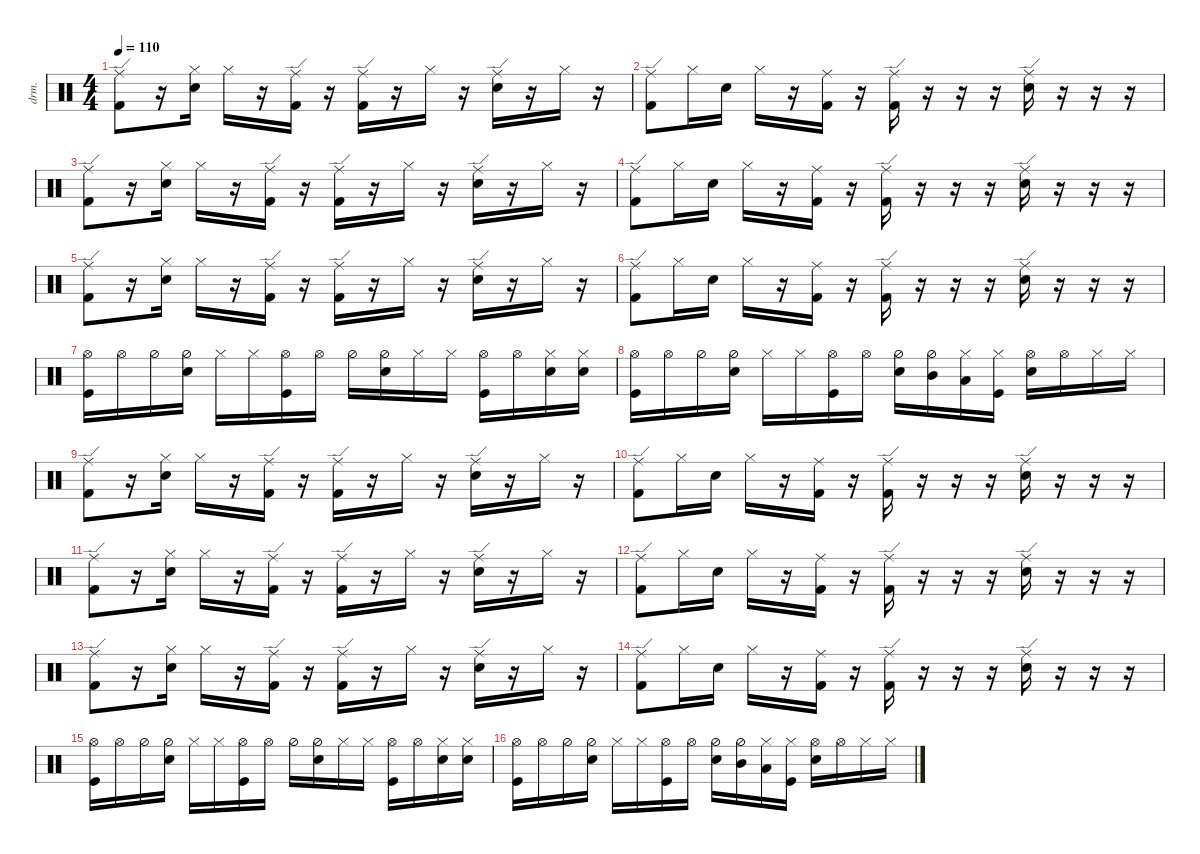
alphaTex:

\defaultSystemsLayout 4
\hideDynamics
\bracketExtendMode nobrackets
\otherSystemsTrackNameOrientation horizontal
\track ("Drumkit" "drm.") {instrument percussion}
\staff {score}
\articulation defaults
\ts (4 4)
\tempo 110
\clef neutral
\ks c
("Kick (hit) 2" "Ride (edge)").8{dy mf beam Down} r.16{beam Down} ("Snare (hit) 2" "Hi-Hat (closed)").16{beam Down} "Hi-Hat (closed)".16{beam Down} r.16{beam Down} ("Kick (hit) 2" "Ride (edge)").16{beam Down} r.16{beam Down} ("Kick (hit) 2" "Ride (edge)").16{beam Down} r.16{beam Down} "Hi-Hat (closed)".16{beam Down} r.16{beam Down} ("Snare (hit) 2" "Ride (edge)").16{beam Down} r.16{beam Down} "Hi-Hat (closed)".16{beam Down} r.16{beam Down} |
("Kick (hit) 2" "Ride (edge)").8{beam Down} "Hi-Hat (closed)".16{beam Down} "Snare (hit) 2".16{beam Down} "Hi-Hat (closed)".16{beam Down} r.16{beam Down} ("Kick (hit) 2" "Ride (middle)").16{beam Down} r.16{beam Down} ("Kick (hit) 2" "Ride (edge)").16{beam Down} r.16{beam Down} r.16{beam Down} r.16{beam Down} ("Snare (hit) 2" "Ride (edge)").16{beam Down} r.16{beam Down} r.16{beam Down} r.16{beam Down} |
("Kick (hit) 2" "Ride (edge)").8{beam Down} r.16{beam Down} ("Snare (hit) 2" "Hi-Hat (closed)").16{beam Down} "Hi-Hat (closed)".16{beam Down} r.16{beam Down} ("Kick (hit) 2" "Ride (edge)").16{beam Down} r.16{beam Down} ("Kick (hit) 2" "Ride (edge)").16{beam Down} r.16{beam Down} "Hi-Hat (closed)".16{beam Down} r.16{beam Down} ("Snare (hit) 2" "Ride (edge)").16{beam Down} r.16{beam Down} "Hi-Hat (closed)".16{beam Down} r.16{beam Down} |
("Kick (hit) 2" "Ride (edge)").8{beam Down} "Hi-Hat (closed)".16{beam Down} "Snare (hit) 2".16{beam Down} "Hi-Hat (closed)".16{beam Down} r.16{beam Down} ("Kick (hit) 2" "Ride (middle)").16{beam Down} r.16{beam Down} ("Kick (hit) 2" "Ride (edge)").16{beam Down} r.16{beam Down} r.16{beam Down} r.16{beam Down} ("Snare (hit) 2" "Ride (edge)").16{beam Down} r.16{beam Down} r.16{beam Down} r.16{beam Down} |
("Kick (hit) 2" "Ride (edge)").8{beam Down} r.16{beam Down} ("Snare (hit) 2" "Hi-Hat (closed)").16{beam Down} "Hi-Hat (closed)".16{beam Down} r.16{beam Down} ("Kick (hit) 2" "Ride (edge)").16{beam Down} r.16{beam Down} ("Kick (hit) 2" "Ride (edge)").16{beam Down} r.16{beam Down} "Hi-Hat (closed)".16{beam Down} r.16{beam Down} ("Snare (hit) 2" "Ride (edge)").16{beam Down} r.16{beam Down} "Hi-Hat (closed)".16{beam Down} r.16{beam Down} |
("Kick (hit) 2" "Ride (edge)").8{beam Down} "Hi-Hat (closed)".16{beam Down} "Snare (hit) 2".16{beam Down} "Hi-Hat (closed)".16{beam Down} r.16{beam Down} ("Kick (hit) 2" "Ride (middle)").16{beam Down} r.16{beam Down} ("Kick (hit) 2" "Ride (edge)").16{beam Down} r.16{beam Down} r.16{beam Down} r.16{beam Down} ("Snare (hit) 2" "Ride (edge)").16{beam Down} r.16{beam Down} r.16{beam Down} r.16{beam Down} |
("Hi-Hat (open)" "Kick (hit)").16{beam Down} "Hi-Hat (open)".16{beam Down} "Hi-Hat (half)".16{beam Down} ("Hi-Hat (half)" "Snare (hit) 2").16{beam Down} "Hi-Hat (closed)".16{beam Down} "Hi-Hat (closed)".16{beam Down} ("Hi-Hat (open)" "Kick (hit)").16{beam Down} "Hi-Hat (open)".16{beam Down} "Hi-Hat (half)".16{beam Down} ("Snare (hit) 2" "Hi-Hat (half)").16{beam Down} "Hi-Hat (closed)".16{beam Down} "Hi-Hat (closed)".16{beam Down} ("Hi-Hat (open)" "Kick (hit)").16{beam Down} "Hi-Hat (open)".16{beam Down} ("Snare (hit) 2" "Hi-Hat (closed)").16{beam Down} ("Hi-Hat (closed)" "Snare (hit) 2").16{beam Down} |
("Hi-Hat (open)" "Kick (hit)").16{beam Down} "Hi-Hat (open)".16{beam Down} "Hi-Hat (half)".16{beam Down} ("Hi-Hat (half)" "Snare (hit) 2").16{beam Down} "Hi-Hat (closed)".16{beam Down} "Hi-Hat (closed)".16{beam Down} ("Hi-Hat (open)" "Kick (hit)").16{beam Down} "Hi-Hat (open)".16{beam Down} ("Hi-Hat (half)" "Snare (hit) 2").16{beam Down} ("Hi-Hat (half)" "Mid Tom (hit)").16{beam Down} ("Hi-Hat (closed)" "Low Tom (hit)").16{beam Down} ("Hi-Hat (closed)" "Kick (hit)").16{beam Down} ("Hi-Hat (open)" "Snare (hit) 2").16{beam Down} "Hi-Hat (open)".16{beam Down} "Hi-Hat (closed)".16{beam Down} "Hi-Hat (closed)".16{beam Down} |
("Kick (hit) 2" "Ride (edge)").8{beam Down} r.16{beam Down} ("Snare (hit) 2" "Hi-Hat (closed)").16{beam Down} "Hi-Hat (closed)".16{beam Down} r.16{beam Down} ("Kick (hit) 2" "Ride (edge)").16{beam Down} r.16{beam Down} ("Kick (hit) 2" "Ride (edge)").16{beam Down} r.16{beam Down} "Hi-Hat (closed)".16{beam Down} r.16{beam Down} ("Snare (hit) 2" "Ride (edge)").16{beam Down} r.16{beam Down} "Hi-Hat (closed)".16{beam Down} r.16{beam Down} |
("Kick (hit) 2" "Ride (edge)").8{beam Down} "Hi-Hat (closed)".16{beam Down} "Snare (hit) 2".16{beam Down} "Hi-Hat (closed)".16{beam Down} r.16{beam Down} ("Kick (hit) 2" "Ride (middle)").16{beam Down} r.16{beam Down} ("Kick (hit) 2" "Ride (edge)").16{beam Down} r.16{beam Down} r.16{beam Down} r.16{beam Down} ("Snare (hit) 2" "Ride (edge)").16{beam Down} r.16{beam Down} r.16{beam Down} r.16{beam Down} |
("Kick (hit) 2" "Ride (edge)").8{beam Down} r.16{beam Down} ("Snare (hit) 2" "Hi-Hat (closed)").16{beam Down} "Hi-Hat (closed)".16{beam Down} r.16{beam Down} ("Kick (hit) 2" "Ride (edge)").16{beam Down} r.16{beam Down} ("Kick (hit) 2" "Ride (edge)").16{beam Down} r.16{beam Down} "Hi-Hat (closed)".16{beam Down} r.16{beam Down} ("Snare (hit) 2" "Ride (edge)").16{beam Down} r.16{beam Down} "Hi-Hat (closed)".16{beam Down} r.16{beam Down} |
("Kick (hit) 2" "Ride (edge)").8{beam Down} "Hi-Hat (closed)".16{beam Down} "Snare (hit) 2".16{beam Down} "Hi-Hat (closed)".16{beam Down} r.16{beam Down} ("Kick (hit) 2" "Ride (middle)").16{beam Down} r.16{beam Down} ("Kick (hit) 2" "Ride (edge)").16{beam Down} r.16{beam Down} r.16{beam Down} r.16{beam Down} ("Snare (hit) 2" "Ride (edge)").16{beam Down} r.16{beam Down} r.16{beam Down} r.16{beam Down} |
("Kick (hit) 2" "Ride (edge)").8{beam Down} r.16{beam Down} ("Snare (hit) 2" "Hi-Hat (closed)").16{beam Down} "Hi-Hat (closed)".16{beam Down} r.16{beam Down} ("Kick (hit) 2" "Ride (edge)").16{beam Down} r.16{beam Down} ("Kick (hit) 2" "Ride (edge)").16{beam Down} r.16{beam Down} "Hi-Hat (closed)".16{beam Down} r.16{beam Down} ("Snare (hit) 2" "Ride (edge)").16{beam Down} r.16{beam Down} "Hi-Hat (closed)".16{beam Down} r.16{beam Down} |
("Kick (hit) 2" "Ride (edge)").8{beam Down} "Hi-Hat (closed)".16{beam Down} "Snare (hit) 2".16{beam Down} "Hi-Hat (closed)".16{beam Down} r.16{beam Down} ("Kick (hit) 2" "Ride (middle)").16{beam Down} r.16{beam Down} ("Kick (hit) 2" "Ride (edge)").16{beam Down} r.16{beam Down} r.16{beam Down} r.16{beam Down} ("Snare (hit) 2" "Ride (edge)").16{beam Down} r.16{beam Down} r.16{beam Down} r.16{beam Down} |
("Hi-Hat (open)" "Kick (hit)").16{beam Down} "Hi-Hat (open)".16{beam Down} "Hi-Hat (half)".16{beam Down} ("Hi-Hat (half)" "Snare (hit) 2").16{beam Down} "Hi-Hat (closed)".16{beam Down} "Hi-Hat (closed)".16{beam Down} ("Hi-Hat (open)" "Kick (hit)").16{beam Down} "Hi-Hat (open)".16{beam Down} "Hi-Hat (half)".16{beam Down} ("Snare (hit) 2" "Hi-Hat (half)").16{beam Down} "Hi-Hat (closed)".16{beam Down} "Hi-Hat (closed)".16{beam Down} ("Hi-Hat (open)" "Kick (hit)").16{beam Down} "Hi-Hat (open)".16{beam Down} ("Snare (hit) 2" "Hi-Hat (closed)").16{beam Down} ("Hi-Hat (closed)" "Snare (hit) 2").16{beam Down} |
("Hi-Hat (open)" "Kick (hit)").16{beam Down} "Hi-Hat (open)".16{beam Down} "Hi-Hat (half)".16{beam Down} ("Hi-Hat (half)" "Snare (hit) 2").16{beam Down} "Hi-Hat (closed)".16{beam Down} "Hi-Hat (closed)".16{beam Down} ("Hi-Hat (open)" "Kick (hit)").16{beam Down} "Hi-Hat (open)".16{beam Down} ("Hi-Hat (half)" "Snare (hit) 2").16{beam Down} ("Hi-Hat (half)" "Mid Tom (hit)").16{beam Down} ("Hi-Hat (closed)" "Low Tom (hit)").16{beam Down} ("Hi-Hat (closed)" "Kick (hit)").16{beam Down} ("Hi-Hat (open)" "Snare (hit) 2").16{beam Down} "Hi-Hat (open)".16{beam Down} "Hi-Hat (closed)".16{beam Down} "Hi-Hat (closed)".16{beam Down}
